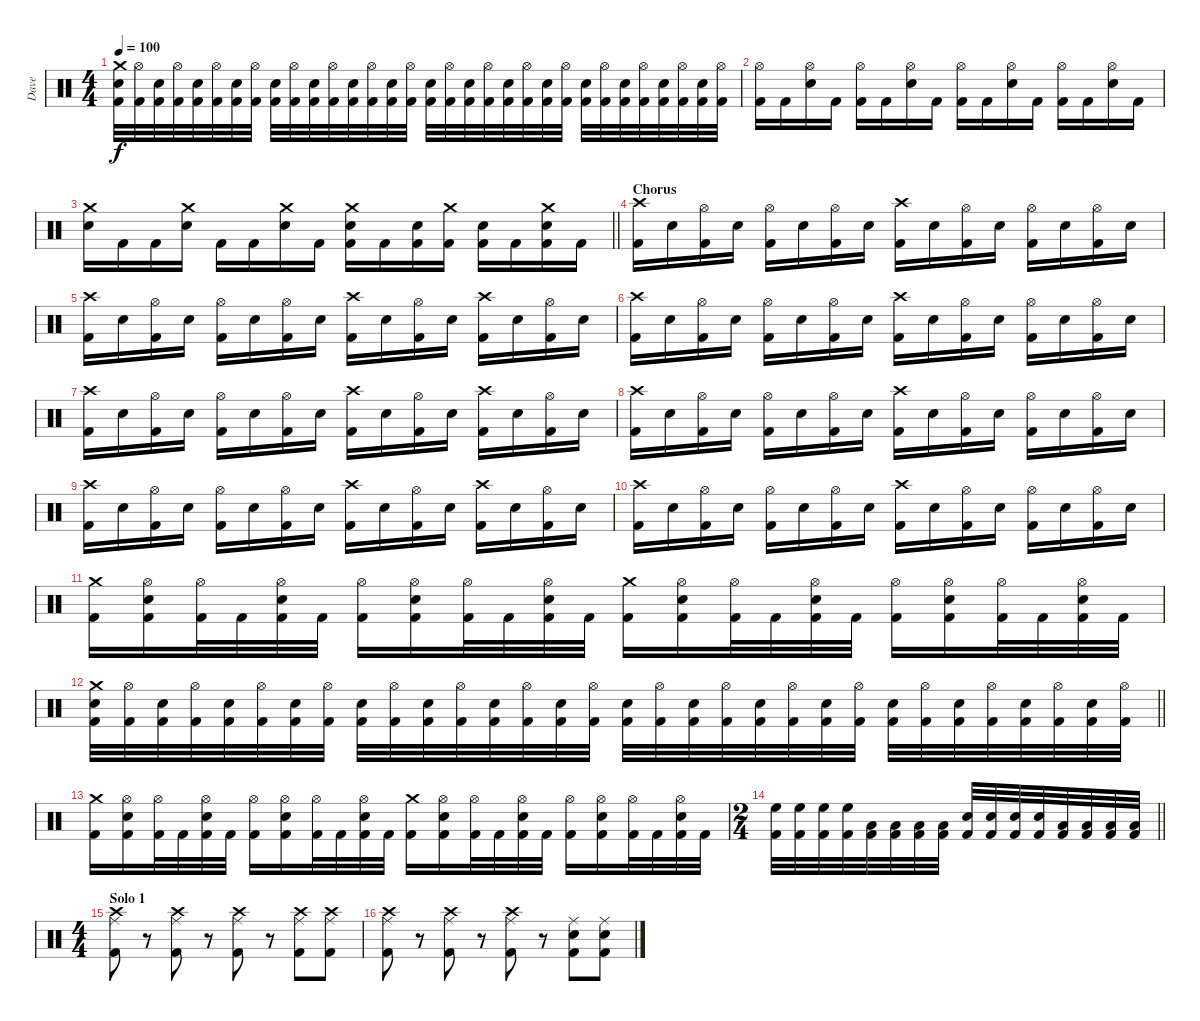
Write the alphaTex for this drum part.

\track ("Dave" "Dave") {instrument percussion}
\staff {score}
\articulation defaults
\ts (4 4)
\tempo 100
\clef neutral
\ks c
("Crash medium (hit)" "Snare (hit) 2" "Kick (hit) 2").32{dy f} ("Hi-Hat (open)" "Kick (hit) 2").32 ("Snare (hit) 2" "Kick (hit) 2").32 ("Hi-Hat (open)" "Kick (hit) 2").32 ("Snare (hit) 2" "Kick (hit) 2").32 ("Hi-Hat (open)" "Kick (hit) 2").32 ("Snare (hit) 2" "Kick (hit) 2").32 ("Hi-Hat (open)" "Kick (hit) 2").32 ("Snare (hit) 2" "Kick (hit) 2").32 ("Hi-Hat (open)" "Kick (hit) 2").32 ("Snare (hit) 2" "Kick (hit) 2").32 ("Hi-Hat (open)" "Kick (hit) 2").32 ("Snare (hit) 2" "Kick (hit) 2").32 ("Hi-Hat (open)" "Kick (hit) 2").32 ("Snare (hit) 2" "Kick (hit) 2").32 ("Hi-Hat (open)" "Kick (hit) 2").32 ("Snare (hit) 2" "Kick (hit) 2").32 ("Hi-Hat (open)" "Kick (hit) 2").32 ("Snare (hit) 2" "Kick (hit) 2").32 ("Hi-Hat (open)" "Kick (hit) 2").32 ("Snare (hit) 2" "Kick (hit) 2").32 ("Hi-Hat (open)" "Kick (hit) 2").32 ("Snare (hit) 2" "Kick (hit) 2").32 ("Hi-Hat (open)" "Kick (hit) 2").32 ("Snare (hit) 2" "Kick (hit) 2").32 ("Hi-Hat (open)" "Kick (hit) 2").32 ("Snare (hit) 2" "Kick (hit) 2").32 ("Hi-Hat (open)" "Kick (hit) 2").32 ("Snare (hit) 2" "Kick (hit) 2").32 ("Hi-Hat (open)" "Kick (hit) 2").32 ("Snare (hit) 2" "Kick (hit) 2").32 ("Hi-Hat (open)" "Kick (hit) 2").32 |
("Hi-Hat (open)" "Kick (hit) 2").16 "Kick (hit) 2".16 ("Hi-Hat (open)" "Snare (hit) 2").16 "Kick (hit) 2".16 ("Hi-Hat (open)" "Kick (hit) 2").16 "Kick (hit) 2".16 ("Hi-Hat (open)" "Snare (hit) 2").16 "Kick (hit) 2".16 ("Hi-Hat (open)" "Kick (hit) 2").16 "Kick (hit) 2".16 ("Hi-Hat (open)" "Snare (hit) 2").16 "Kick (hit) 2".16 ("Hi-Hat (open)" "Kick (hit) 2").16 "Kick (hit) 2".16 ("Hi-Hat (open)" "Snare (hit) 2").16 "Kick (hit) 2".16 |
\barLineRight lightlight
("Crash medium (hit)" "Snare (hit) 2").16 "Kick (hit) 2".16 "Kick (hit) 2".16 ("Crash medium (hit)" "Snare (hit) 2").16 "Kick (hit) 2".16 "Kick (hit) 2".16 ("Crash medium (hit)" "Snare (hit) 2").16 "Kick (hit) 2".16 ("Crash medium (hit)" "Snare (hit) 2" "Kick (hit) 2").16 "Kick (hit) 2".16 ("Snare (hit) 2" "Kick (hit) 2").16 ("Crash medium (hit)" "Kick (hit) 2").16 ("Snare (hit) 2" "Kick (hit) 2").16 "Kick (hit) 2".16 ("Crash medium (hit)" "Snare (hit) 2" "Kick (hit) 2").16 "Kick (hit) 2".16 |
\section ("" "Chorus")
("Crash high (hit)" "Kick (hit) 2").16 "Snare (hit) 2".16 ("Hi-Hat (open)" "Kick (hit) 2").16 "Snare (hit) 2".16 ("Hi-Hat (open)" "Kick (hit) 2").16 "Snare (hit) 2".16 ("Hi-Hat (open)" "Kick (hit) 2").16 "Snare (hit) 2".16 ("Crash high (hit)" "Kick (hit) 2").16 "Snare (hit) 2".16 ("Hi-Hat (open)" "Kick (hit) 2").16 "Snare (hit) 2".16 ("Hi-Hat (open)" "Kick (hit) 2").16 "Snare (hit) 2".16 ("Hi-Hat (open)" "Kick (hit) 2").16 "Snare (hit) 2".16 |
("Crash high (hit)" "Kick (hit) 2").16 "Snare (hit) 2".16 ("Hi-Hat (open)" "Kick (hit) 2").16 "Snare (hit) 2".16 ("Hi-Hat (open)" "Kick (hit) 2").16 "Snare (hit) 2".16 ("Hi-Hat (open)" "Kick (hit) 2").16 "Snare (hit) 2".16 ("Crash high (hit)" "Kick (hit) 2").16 "Snare (hit) 2".16 ("Hi-Hat (open)" "Kick (hit) 2").16 "Snare (hit) 2".16 ("Crash high (hit)" "Kick (hit) 2").16 "Snare (hit) 2".16 ("Hi-Hat (open)" "Kick (hit) 2").16 "Snare (hit) 2".16 |
("Crash high (hit)" "Kick (hit) 2").16 "Snare (hit) 2".16 ("Hi-Hat (open)" "Kick (hit) 2").16 "Snare (hit) 2".16 ("Hi-Hat (open)" "Kick (hit) 2").16 "Snare (hit) 2".16 ("Hi-Hat (open)" "Kick (hit) 2").16 "Snare (hit) 2".16 ("Crash high (hit)" "Kick (hit) 2").16 "Snare (hit) 2".16 ("Hi-Hat (open)" "Kick (hit) 2").16 "Snare (hit) 2".16 ("Hi-Hat (open)" "Kick (hit) 2").16 "Snare (hit) 2".16 ("Hi-Hat (open)" "Kick (hit) 2").16 "Snare (hit) 2".16 |
("Crash high (hit)" "Kick (hit) 2").16 "Snare (hit) 2".16 ("Hi-Hat (open)" "Kick (hit) 2").16 "Snare (hit) 2".16 ("Hi-Hat (open)" "Kick (hit) 2").16 "Snare (hit) 2".16 ("Hi-Hat (open)" "Kick (hit) 2").16 "Snare (hit) 2".16 ("Crash high (hit)" "Kick (hit) 2").16 "Snare (hit) 2".16 ("Hi-Hat (open)" "Kick (hit) 2").16 "Snare (hit) 2".16 ("Crash high (hit)" "Kick (hit) 2").16 "Snare (hit) 2".16 ("Hi-Hat (open)" "Kick (hit) 2").16 "Snare (hit) 2".16 |
("Crash high (hit)" "Kick (hit) 2").16 "Snare (hit) 2".16 ("Hi-Hat (open)" "Kick (hit) 2").16 "Snare (hit) 2".16 ("Hi-Hat (open)" "Kick (hit) 2").16 "Snare (hit) 2".16 ("Hi-Hat (open)" "Kick (hit) 2").16 "Snare (hit) 2".16 ("Crash high (hit)" "Kick (hit) 2").16 "Snare (hit) 2".16 ("Hi-Hat (open)" "Kick (hit) 2").16 "Snare (hit) 2".16 ("Hi-Hat (open)" "Kick (hit) 2").16 "Snare (hit) 2".16 ("Hi-Hat (open)" "Kick (hit) 2").16 "Snare (hit) 2".16 |
("Crash high (hit)" "Kick (hit) 2").16 "Snare (hit) 2".16 ("Hi-Hat (open)" "Kick (hit) 2").16 "Snare (hit) 2".16 ("Hi-Hat (open)" "Kick (hit) 2").16 "Snare (hit) 2".16 ("Hi-Hat (open)" "Kick (hit) 2").16 "Snare (hit) 2".16 ("Crash high (hit)" "Kick (hit) 2").16 "Snare (hit) 2".16 ("Hi-Hat (open)" "Kick (hit) 2").16 "Snare (hit) 2".16 ("Crash high (hit)" "Kick (hit) 2").16 "Snare (hit) 2".16 ("Hi-Hat (open)" "Kick (hit) 2").16 "Snare (hit) 2".16 |
("Crash high (hit)" "Kick (hit) 2").16 "Snare (hit) 2".16 ("Hi-Hat (open)" "Kick (hit) 2").16 "Snare (hit) 2".16 ("Hi-Hat (open)" "Kick (hit) 2").16 "Snare (hit) 2".16 ("Hi-Hat (open)" "Kick (hit) 2").16 "Snare (hit) 2".16 ("Crash high (hit)" "Kick (hit) 2").16 "Snare (hit) 2".16 ("Hi-Hat (open)" "Kick (hit) 2").16 "Snare (hit) 2".16 ("Hi-Hat (open)" "Kick (hit) 2").16 "Snare (hit) 2".16 ("Hi-Hat (open)" "Kick (hit) 2").16 "Snare (hit) 2".16 |
("Crash medium (hit)" "Kick (hit) 2").16 ("Hi-Hat (open)" "Snare (hit) 2" "Kick (hit) 2").16 ("Hi-Hat (open)" "Kick (hit) 2").32 "Kick (hit) 2".32 ("Hi-Hat (open)" "Snare (hit) 2" "Kick (hit) 2").32 "Kick (hit) 2".32 ("Hi-Hat (open)" "Kick (hit) 2").16 ("Hi-Hat (open)" "Snare (hit) 2" "Kick (hit) 2").16 ("Hi-Hat (open)" "Kick (hit) 2").32 "Kick (hit) 2".32 ("Hi-Hat (open)" "Snare (hit) 2" "Kick (hit) 2").32 "Kick (hit) 2".32 ("Crash medium (hit)" "Kick (hit) 2").16 ("Hi-Hat (open)" "Snare (hit) 2" "Kick (hit) 2").16 ("Hi-Hat (open)" "Kick (hit) 2").32 "Kick (hit) 2".32 ("Hi-Hat (open)" "Snare (hit) 2" "Kick (hit) 2").32 "Kick (hit) 2".32 ("Hi-Hat (open)" "Kick (hit) 2").16 ("Hi-Hat (open)" "Snare (hit) 2" "Kick (hit) 2").16 ("Hi-Hat (open)" "Kick (hit) 2").32 "Kick (hit) 2".32 ("Hi-Hat (open)" "Snare (hit) 2" "Kick (hit) 2").32 "Kick (hit) 2".32 |
\barLineRight lightlight
("Crash medium (hit)" "Snare (hit) 2" "Kick (hit) 2").32 ("Hi-Hat (open)" "Kick (hit) 2").32 ("Snare (hit) 2" "Kick (hit) 2").32 ("Hi-Hat (open)" "Kick (hit) 2").32 ("Snare (hit) 2" "Kick (hit) 2").32 ("Hi-Hat (open)" "Kick (hit) 2").32 ("Snare (hit) 2" "Kick (hit) 2").32 ("Hi-Hat (open)" "Kick (hit) 2").32 ("Snare (hit) 2" "Kick (hit) 2").32 ("Hi-Hat (open)" "Kick (hit) 2").32 ("Snare (hit) 2" "Kick (hit) 2").32 ("Hi-Hat (open)" "Kick (hit) 2").32 ("Snare (hit) 2" "Kick (hit) 2").32 ("Hi-Hat (open)" "Kick (hit) 2").32 ("Snare (hit) 2" "Kick (hit) 2").32 ("Hi-Hat (open)" "Kick (hit) 2").32 ("Snare (hit) 2" "Kick (hit) 2").32 ("Hi-Hat (open)" "Kick (hit) 2").32 ("Snare (hit) 2" "Kick (hit) 2").32 ("Hi-Hat (open)" "Kick (hit) 2").32 ("Snare (hit) 2" "Kick (hit) 2").32 ("Hi-Hat (open)" "Kick (hit) 2").32 ("Snare (hit) 2" "Kick (hit) 2").32 ("Hi-Hat (open)" "Kick (hit) 2").32 ("Snare (hit) 2" "Kick (hit) 2").32 ("Hi-Hat (open)" "Kick (hit) 2").32 ("Snare (hit) 2" "Kick (hit) 2").32 ("Hi-Hat (open)" "Kick (hit) 2").32 ("Snare (hit) 2" "Kick (hit) 2").32 ("Hi-Hat (open)" "Kick (hit) 2").32 ("Snare (hit) 2" "Kick (hit) 2").32 ("Hi-Hat (open)" "Kick (hit) 2").32 |
("Crash medium (hit)" "Kick (hit) 2").16 ("Hi-Hat (open)" "Snare (hit) 2" "Kick (hit) 2").16 ("Hi-Hat (open)" "Kick (hit) 2").32 "Kick (hit) 2".32 ("Hi-Hat (open)" "Snare (hit) 2" "Kick (hit) 2").32 "Kick (hit) 2".32 ("Hi-Hat (open)" "Kick (hit) 2").16 ("Hi-Hat (open)" "Snare (hit) 2" "Kick (hit) 2").16 ("Hi-Hat (open)" "Kick (hit) 2").32 "Kick (hit) 2".32 ("Hi-Hat (open)" "Snare (hit) 2" "Kick (hit) 2").32 "Kick (hit) 2".32 ("Crash medium (hit)" "Kick (hit) 2").16 ("Hi-Hat (open)" "Snare (hit) 2" "Kick (hit) 2").16 ("Hi-Hat (open)" "Kick (hit) 2").32 "Kick (hit) 2".32 ("Hi-Hat (open)" "Snare (hit) 2" "Kick (hit) 2").32 "Kick (hit) 2".32 ("Hi-Hat (open)" "Kick (hit) 2").16 ("Hi-Hat (open)" "Snare (hit) 2" "Kick (hit) 2").16 ("Hi-Hat (open)" "Kick (hit) 2").32 "Kick (hit) 2".32 ("Hi-Hat (open)" "Snare (hit) 2" "Kick (hit) 2").32 "Kick (hit) 2".32 |
\ts (2 4)
\barLineRight lightlight
("High Floor Tom (hit)" "Kick (hit) 2").32 ("High Floor Tom (hit)" "Kick (hit) 2").32 ("High Floor Tom (hit)" "Kick (hit) 2").32 ("High Floor Tom (hit)" "Kick (hit) 2").32 ("Low Floor Tom (hit)" "Kick (hit) 2").32 ("Low Floor Tom (hit)" "Kick (hit) 2").32 ("Low Floor Tom (hit)" "Kick (hit) 2").32 ("Low Floor Tom (hit)" "Kick (hit) 2").32 ("Snare (hit) 2" "Kick (hit) 2").32 ("Snare (hit) 2" "Kick (hit) 2").32 ("Snare (hit) 2" "Kick (hit) 2").32 ("Snare (hit) 2" "Kick (hit) 2").32 ("Low Floor Tom (hit)" "Kick (hit) 2").32 ("Low Floor Tom (hit)" "Kick (hit) 2").32 ("Low Floor Tom (hit)" "Kick (hit) 2").32 ("Low Floor Tom (hit)" "Kick (hit) 2").32 |
\ts (4 4)
\section ("" "Solo 1")
("Ride (middle)" "Crash high (hit)" "Kick (hit) 2").8 r.8 ("Ride (middle)" "Crash high (hit)" "Kick (hit) 2").8 r.8 ("Ride (middle)" "Crash high (hit)" "Kick (hit) 2").8 r.8 ("Ride (middle)" "Crash high (hit)" "Kick (hit) 2").8 ("Ride (middle)" "Crash high (hit)" "Kick (hit) 2").8 |
("Ride (middle)" "Crash high (hit)" "Kick (hit) 2").8 r.8 ("Ride (middle)" "Crash high (hit)" "Kick (hit) 2").8 r.8 ("Ride (middle)" "Crash high (hit)" "Kick (hit) 2").8 r.8 ("Ride (middle)" "Snare (hit) 2" "Kick (hit) 2").8 ("Ride (middle)" "Snare (hit) 2" "Kick (hit) 2").8
